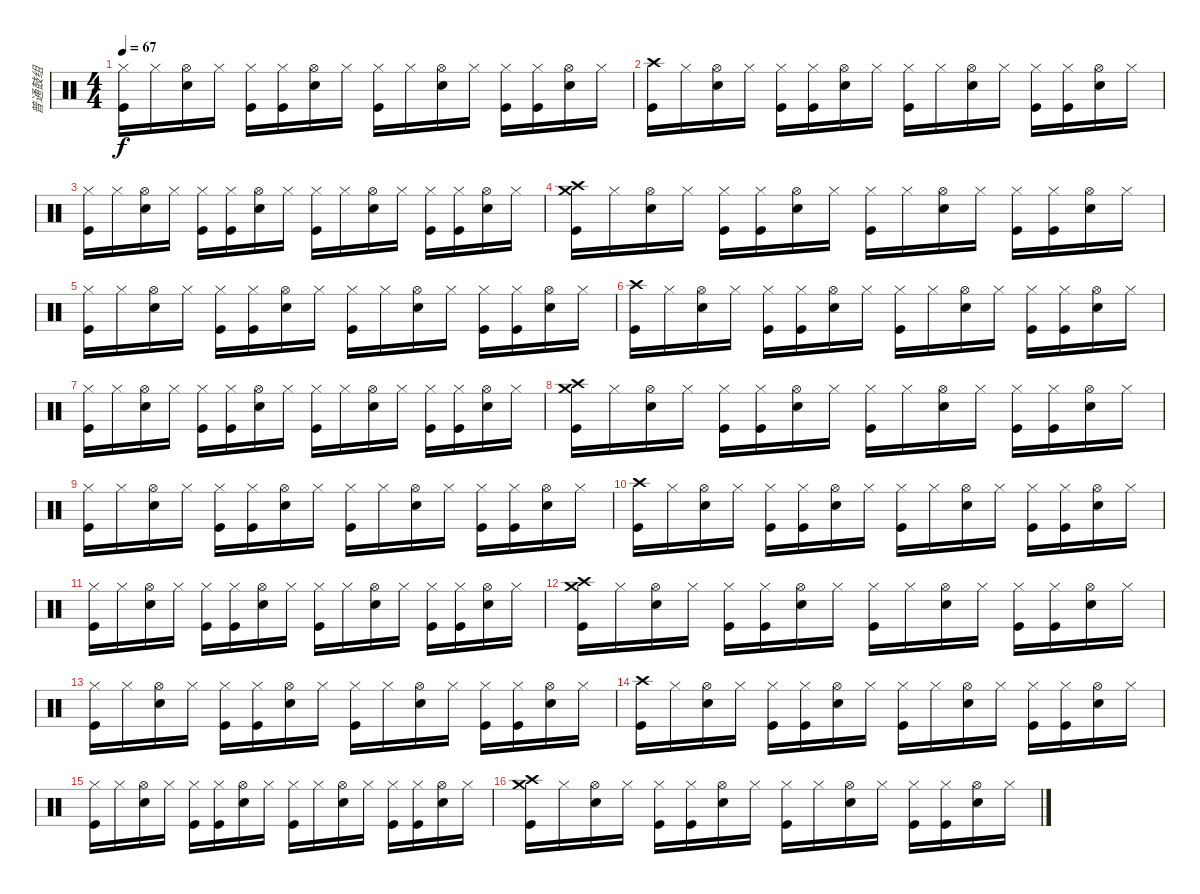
\track ("普通鼓组" "普通鼓组") {instrument percussion}
\staff {score}
\articulation defaults
\ts (4 4)
\tempo 67
\clef neutral
\ks c
("Hi-Hat (closed)" "Kick (hit)").16{dy f} "Hi-Hat (closed)".16 ("Hi-Hat (open)" "Snare (hit) 2").16 "Hi-Hat (closed)".16 ("Hi-Hat (closed)" "Kick (hit)").16 ("Hi-Hat (closed)" "Kick (hit)").16 ("Hi-Hat (open)" "Snare (hit) 2").16 "Hi-Hat (closed)".16 ("Hi-Hat (closed)" "Kick (hit)").16 "Hi-Hat (closed)".16 ("Hi-Hat (open)" "Snare (hit) 2").16 "Hi-Hat (closed)".16 ("Hi-Hat (closed)" "Kick (hit)").16 ("Hi-Hat (closed)" "Kick (hit)").16 ("Hi-Hat (open)" "Snare (hit) 2").16 "Hi-Hat (closed)".16 |
("Crash high (hit)" "Kick (hit)").16 "Hi-Hat (closed)".16 ("Hi-Hat (open)" "Snare (hit) 2").16 "Hi-Hat (closed)".16 ("Hi-Hat (closed)" "Kick (hit)").16 ("Hi-Hat (closed)" "Kick (hit)").16 ("Hi-Hat (open)" "Snare (hit) 2").16 "Hi-Hat (closed)".16 ("Hi-Hat (closed)" "Kick (hit)").16 "Hi-Hat (closed)".16 ("Hi-Hat (open)" "Snare (hit) 2").16 "Hi-Hat (closed)".16 ("Hi-Hat (closed)" "Kick (hit)").16 ("Hi-Hat (closed)" "Kick (hit)").16 ("Hi-Hat (open)" "Snare (hit) 2").16 "Hi-Hat (closed)".16 |
("Hi-Hat (closed)" "Kick (hit)").16 "Hi-Hat (closed)".16 ("Hi-Hat (open)" "Snare (hit) 2").16 "Hi-Hat (closed)".16 ("Hi-Hat (closed)" "Kick (hit)").16 ("Hi-Hat (closed)" "Kick (hit)").16 ("Hi-Hat (open)" "Snare (hit) 2").16 "Hi-Hat (closed)".16 ("Hi-Hat (closed)" "Kick (hit)").16 "Hi-Hat (closed)".16 ("Hi-Hat (open)" "Snare (hit) 2").16 "Hi-Hat (closed)".16 ("Hi-Hat (closed)" "Kick (hit)").16 ("Hi-Hat (closed)" "Kick (hit)").16 ("Hi-Hat (open)" "Snare (hit) 2").16 "Hi-Hat (closed)".16 |
("Crash high (hit)" "Kick (hit)" "Crash medium (hit)").16 "Hi-Hat (closed)".16 ("Hi-Hat (open)" "Snare (hit) 2").16 "Hi-Hat (closed)".16 ("Hi-Hat (closed)" "Kick (hit)").16 ("Hi-Hat (closed)" "Kick (hit)").16 ("Hi-Hat (open)" "Snare (hit) 2").16 "Hi-Hat (closed)".16 ("Hi-Hat (closed)" "Kick (hit)").16 "Hi-Hat (closed)".16 ("Hi-Hat (open)" "Snare (hit) 2").16 "Hi-Hat (closed)".16 ("Hi-Hat (closed)" "Kick (hit)").16 ("Hi-Hat (closed)" "Kick (hit)").16 ("Hi-Hat (open)" "Snare (hit) 2").16 "Hi-Hat (closed)".16 |
("Hi-Hat (closed)" "Kick (hit)").16 "Hi-Hat (closed)".16 ("Hi-Hat (open)" "Snare (hit) 2").16 "Hi-Hat (closed)".16 ("Hi-Hat (closed)" "Kick (hit)").16 ("Hi-Hat (closed)" "Kick (hit)").16 ("Hi-Hat (open)" "Snare (hit) 2").16 "Hi-Hat (closed)".16 ("Hi-Hat (closed)" "Kick (hit)").16 "Hi-Hat (closed)".16 ("Hi-Hat (open)" "Snare (hit) 2").16 "Hi-Hat (closed)".16 ("Hi-Hat (closed)" "Kick (hit)").16 ("Hi-Hat (closed)" "Kick (hit)").16 ("Hi-Hat (open)" "Snare (hit) 2").16 "Hi-Hat (closed)".16 |
("Crash high (hit)" "Kick (hit)").16 "Hi-Hat (closed)".16 ("Hi-Hat (open)" "Snare (hit) 2").16 "Hi-Hat (closed)".16 ("Hi-Hat (closed)" "Kick (hit)").16 ("Hi-Hat (closed)" "Kick (hit)").16 ("Hi-Hat (open)" "Snare (hit) 2").16 "Hi-Hat (closed)".16 ("Hi-Hat (closed)" "Kick (hit)").16 "Hi-Hat (closed)".16 ("Hi-Hat (open)" "Snare (hit) 2").16 "Hi-Hat (closed)".16 ("Hi-Hat (closed)" "Kick (hit)").16 ("Hi-Hat (closed)" "Kick (hit)").16 ("Hi-Hat (open)" "Snare (hit) 2").16 "Hi-Hat (closed)".16 |
("Hi-Hat (closed)" "Kick (hit)").16 "Hi-Hat (closed)".16 ("Hi-Hat (open)" "Snare (hit) 2").16 "Hi-Hat (closed)".16 ("Hi-Hat (closed)" "Kick (hit)").16 ("Hi-Hat (closed)" "Kick (hit)").16 ("Hi-Hat (open)" "Snare (hit) 2").16 "Hi-Hat (closed)".16 ("Hi-Hat (closed)" "Kick (hit)").16 "Hi-Hat (closed)".16 ("Hi-Hat (open)" "Snare (hit) 2").16 "Hi-Hat (closed)".16 ("Hi-Hat (closed)" "Kick (hit)").16 ("Hi-Hat (closed)" "Kick (hit)").16 ("Hi-Hat (open)" "Snare (hit) 2").16 "Hi-Hat (closed)".16 |
("Crash high (hit)" "Kick (hit)" "Crash medium (hit)").16 "Hi-Hat (closed)".16 ("Hi-Hat (open)" "Snare (hit) 2").16 "Hi-Hat (closed)".16 ("Hi-Hat (closed)" "Kick (hit)").16 ("Hi-Hat (closed)" "Kick (hit)").16 ("Hi-Hat (open)" "Snare (hit) 2").16 "Hi-Hat (closed)".16 ("Hi-Hat (closed)" "Kick (hit)").16 "Hi-Hat (closed)".16 ("Hi-Hat (open)" "Snare (hit) 2").16 "Hi-Hat (closed)".16 ("Hi-Hat (closed)" "Kick (hit)").16 ("Hi-Hat (closed)" "Kick (hit)").16 ("Hi-Hat (open)" "Snare (hit) 2").16 "Hi-Hat (closed)".16 |
("Hi-Hat (closed)" "Kick (hit)").16 "Hi-Hat (closed)".16 ("Hi-Hat (open)" "Snare (hit) 2").16 "Hi-Hat (closed)".16 ("Hi-Hat (closed)" "Kick (hit)").16 ("Hi-Hat (closed)" "Kick (hit)").16 ("Hi-Hat (open)" "Snare (hit) 2").16 "Hi-Hat (closed)".16 ("Hi-Hat (closed)" "Kick (hit)").16 "Hi-Hat (closed)".16 ("Hi-Hat (open)" "Snare (hit) 2").16 "Hi-Hat (closed)".16 ("Hi-Hat (closed)" "Kick (hit)").16 ("Hi-Hat (closed)" "Kick (hit)").16 ("Hi-Hat (open)" "Snare (hit) 2").16 "Hi-Hat (closed)".16 |
("Crash high (hit)" "Kick (hit)").16 "Hi-Hat (closed)".16 ("Hi-Hat (open)" "Snare (hit) 2").16 "Hi-Hat (closed)".16 ("Hi-Hat (closed)" "Kick (hit)").16 ("Hi-Hat (closed)" "Kick (hit)").16 ("Hi-Hat (open)" "Snare (hit) 2").16 "Hi-Hat (closed)".16 ("Hi-Hat (closed)" "Kick (hit)").16 "Hi-Hat (closed)".16 ("Hi-Hat (open)" "Snare (hit) 2").16 "Hi-Hat (closed)".16 ("Hi-Hat (closed)" "Kick (hit)").16 ("Hi-Hat (closed)" "Kick (hit)").16 ("Hi-Hat (open)" "Snare (hit) 2").16 "Hi-Hat (closed)".16 |
("Hi-Hat (closed)" "Kick (hit)").16 "Hi-Hat (closed)".16 ("Hi-Hat (open)" "Snare (hit) 2").16 "Hi-Hat (closed)".16 ("Hi-Hat (closed)" "Kick (hit)").16 ("Hi-Hat (closed)" "Kick (hit)").16 ("Hi-Hat (open)" "Snare (hit) 2").16 "Hi-Hat (closed)".16 ("Hi-Hat (closed)" "Kick (hit)").16 "Hi-Hat (closed)".16 ("Hi-Hat (open)" "Snare (hit) 2").16 "Hi-Hat (closed)".16 ("Hi-Hat (closed)" "Kick (hit)").16 ("Hi-Hat (closed)" "Kick (hit)").16 ("Hi-Hat (open)" "Snare (hit) 2").16 "Hi-Hat (closed)".16 |
("Crash high (hit)" "Kick (hit)" "Crash medium (hit)").16 "Hi-Hat (closed)".16 ("Hi-Hat (open)" "Snare (hit) 2").16 "Hi-Hat (closed)".16 ("Hi-Hat (closed)" "Kick (hit)").16 ("Hi-Hat (closed)" "Kick (hit)").16 ("Hi-Hat (open)" "Snare (hit) 2").16 "Hi-Hat (closed)".16 ("Hi-Hat (closed)" "Kick (hit)").16 "Hi-Hat (closed)".16 ("Hi-Hat (open)" "Snare (hit) 2").16 "Hi-Hat (closed)".16 ("Hi-Hat (closed)" "Kick (hit)").16 ("Hi-Hat (closed)" "Kick (hit)").16 ("Hi-Hat (open)" "Snare (hit) 2").16 "Hi-Hat (closed)".16 |
("Hi-Hat (closed)" "Kick (hit)").16 "Hi-Hat (closed)".16 ("Hi-Hat (open)" "Snare (hit) 2").16 "Hi-Hat (closed)".16 ("Hi-Hat (closed)" "Kick (hit)").16 ("Hi-Hat (closed)" "Kick (hit)").16 ("Hi-Hat (open)" "Snare (hit) 2").16 "Hi-Hat (closed)".16 ("Hi-Hat (closed)" "Kick (hit)").16 "Hi-Hat (closed)".16 ("Hi-Hat (open)" "Snare (hit) 2").16 "Hi-Hat (closed)".16 ("Hi-Hat (closed)" "Kick (hit)").16 ("Hi-Hat (closed)" "Kick (hit)").16 ("Hi-Hat (open)" "Snare (hit) 2").16 "Hi-Hat (closed)".16 |
("Crash high (hit)" "Kick (hit)").16 "Hi-Hat (closed)".16 ("Hi-Hat (open)" "Snare (hit) 2").16 "Hi-Hat (closed)".16 ("Hi-Hat (closed)" "Kick (hit)").16 ("Hi-Hat (closed)" "Kick (hit)").16 ("Hi-Hat (open)" "Snare (hit) 2").16 "Hi-Hat (closed)".16 ("Hi-Hat (closed)" "Kick (hit)").16 "Hi-Hat (closed)".16 ("Hi-Hat (open)" "Snare (hit) 2").16 "Hi-Hat (closed)".16 ("Hi-Hat (closed)" "Kick (hit)").16 ("Hi-Hat (closed)" "Kick (hit)").16 ("Hi-Hat (open)" "Snare (hit) 2").16 "Hi-Hat (closed)".16 |
("Hi-Hat (closed)" "Kick (hit)").16 "Hi-Hat (closed)".16 ("Hi-Hat (open)" "Snare (hit) 2").16 "Hi-Hat (closed)".16 ("Hi-Hat (closed)" "Kick (hit)").16 ("Hi-Hat (closed)" "Kick (hit)").16 ("Hi-Hat (open)" "Snare (hit) 2").16 "Hi-Hat (closed)".16 ("Hi-Hat (closed)" "Kick (hit)").16 "Hi-Hat (closed)".16 ("Hi-Hat (open)" "Snare (hit) 2").16 "Hi-Hat (closed)".16 ("Hi-Hat (closed)" "Kick (hit)").16 ("Hi-Hat (closed)" "Kick (hit)").16 ("Hi-Hat (open)" "Snare (hit) 2").16 "Hi-Hat (closed)".16 |
("Crash high (hit)" "Kick (hit)" "Crash medium (hit)").16 "Hi-Hat (closed)".16 ("Hi-Hat (open)" "Snare (hit) 2").16 "Hi-Hat (closed)".16 ("Hi-Hat (closed)" "Kick (hit)").16 ("Hi-Hat (closed)" "Kick (hit)").16 ("Hi-Hat (open)" "Snare (hit) 2").16 "Hi-Hat (closed)".16 ("Hi-Hat (closed)" "Kick (hit)").16 "Hi-Hat (closed)".16 ("Hi-Hat (open)" "Snare (hit) 2").16 "Hi-Hat (closed)".16 ("Hi-Hat (closed)" "Kick (hit)").16 ("Hi-Hat (closed)" "Kick (hit)").16 ("Hi-Hat (open)" "Snare (hit) 2").16 "Hi-Hat (closed)".16
